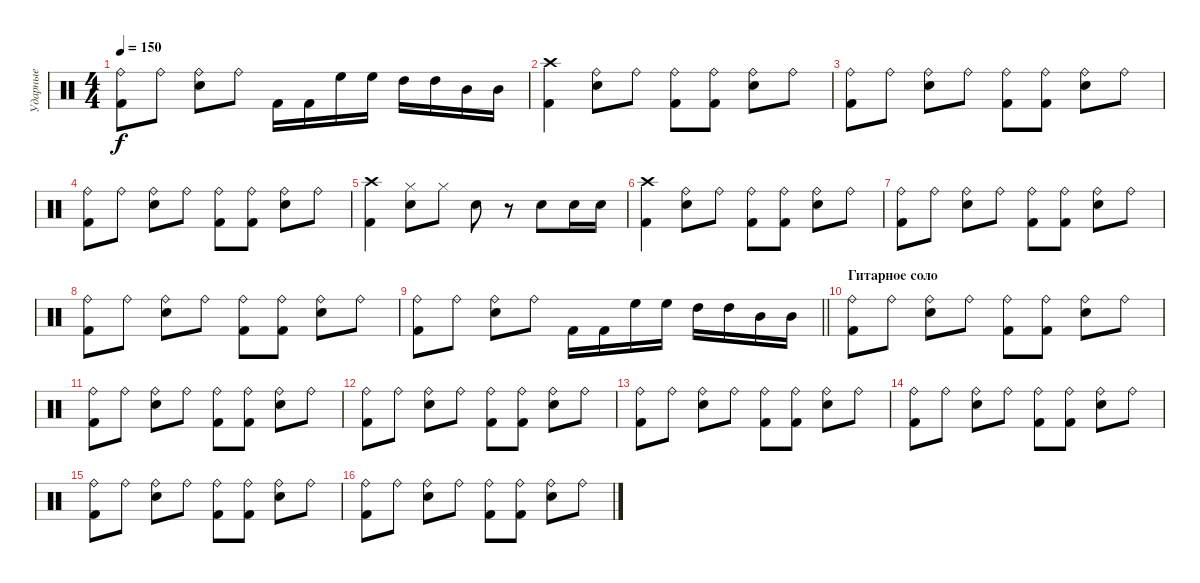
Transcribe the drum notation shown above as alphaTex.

\track ("Ударные" "Ударные") {instrument percussion}
\staff {score}
\articulation defaults
\ts (4 4)
\tempo 150
\clef neutral
\ks c
("Ride (bell)" "Kick (hit) 2").8{dy f} "Ride (bell)".8 ("Ride (bell)" "Electric Snare (hit)").8 "Ride (bell)".8 "Kick (hit) 2".16 "Kick (hit) 2".16 "High Floor Tom (hit)".16 "High Floor Tom (hit)".16 "High Tom (hit)".16 "High Tom (hit)".16 "Mid Tom (hit)".16 "Mid Tom (hit)".16 |
("Crash high (hit)" "Kick (hit) 2").4 ("Ride (bell)" "Electric Snare (hit)").8 "Ride (bell)".8 ("Ride (bell)" "Kick (hit) 2").8 ("Ride (bell)" "Kick (hit) 2").8 ("Ride (bell)" "Electric Snare (hit)").8 "Ride (bell)".8 |
("Ride (bell)" "Kick (hit) 2").8 "Ride (bell)".8 ("Ride (bell)" "Electric Snare (hit)").8 "Ride (bell)".8 ("Ride (bell)" "Kick (hit) 2").8 ("Ride (bell)" "Kick (hit) 2").8 ("Ride (bell)" "Electric Snare (hit)").8 "Ride (bell)".8 |
("Ride (bell)" "Kick (hit) 2").8 "Ride (bell)".8 ("Ride (bell)" "Electric Snare (hit)").8 "Ride (bell)".8 ("Ride (bell)" "Kick (hit) 2").8 ("Ride (bell)" "Kick (hit) 2").8 ("Ride (bell)" "Electric Snare (hit)").8 "Ride (bell)".8 |
("Crash high (hit)" "Kick (hit) 2").4 ("Hi-Hat (closed)" "Electric Snare (hit)").8 "Hi-Hat (closed)".8 "Electric Snare (hit)".8 r.8 "Electric Snare (hit)".8 "Electric Snare (hit)".16 "Electric Snare (hit)".16 |
("Crash high (hit)" "Kick (hit) 2").4 ("Ride (bell)" "Electric Snare (hit)").8 "Ride (bell)".8 ("Ride (bell)" "Kick (hit) 2").8 ("Ride (bell)" "Kick (hit) 2").8 ("Ride (bell)" "Electric Snare (hit)").8 "Ride (bell)".8 |
("Ride (bell)" "Kick (hit) 2").8 "Ride (bell)".8 ("Ride (bell)" "Electric Snare (hit)").8 "Ride (bell)".8 ("Ride (bell)" "Kick (hit) 2").8 ("Ride (bell)" "Kick (hit) 2").8 ("Ride (bell)" "Electric Snare (hit)").8 "Ride (bell)".8 |
("Ride (bell)" "Kick (hit) 2").8 "Ride (bell)".8 ("Ride (bell)" "Electric Snare (hit)").8 "Ride (bell)".8 ("Ride (bell)" "Kick (hit) 2").8 ("Ride (bell)" "Kick (hit) 2").8 ("Ride (bell)" "Electric Snare (hit)").8 "Ride (bell)".8 |
\barLineRight lightlight
("Ride (bell)" "Kick (hit) 2").8 "Ride (bell)".8 ("Ride (bell)" "Electric Snare (hit)").8 "Ride (bell)".8 "Kick (hit) 2".16 "Kick (hit) 2".16 "High Floor Tom (hit)".16 "High Floor Tom (hit)".16 "High Tom (hit)".16 "High Tom (hit)".16 "Mid Tom (hit)".16 "Mid Tom (hit)".16 |
\section ("" "Гитарное соло")
("Ride (bell)" "Kick (hit) 2").8 "Ride (bell)".8 ("Ride (bell)" "Electric Snare (hit)").8 "Ride (bell)".8 ("Ride (bell)" "Kick (hit) 2").8 ("Ride (bell)" "Kick (hit) 2").8 ("Ride (bell)" "Electric Snare (hit)").8 "Ride (bell)".8 |
("Ride (bell)" "Kick (hit) 2").8 "Ride (bell)".8 ("Ride (bell)" "Electric Snare (hit)").8 "Ride (bell)".8 ("Ride (bell)" "Kick (hit) 2").8 ("Ride (bell)" "Kick (hit) 2").8 ("Ride (bell)" "Electric Snare (hit)").8 "Ride (bell)".8 |
("Ride (bell)" "Kick (hit) 2").8 "Ride (bell)".8 ("Ride (bell)" "Electric Snare (hit)").8 "Ride (bell)".8 ("Ride (bell)" "Kick (hit) 2").8 ("Ride (bell)" "Kick (hit) 2").8 ("Ride (bell)" "Electric Snare (hit)").8 "Ride (bell)".8 |
("Ride (bell)" "Kick (hit) 2").8 "Ride (bell)".8 ("Ride (bell)" "Electric Snare (hit)").8 "Ride (bell)".8 ("Ride (bell)" "Kick (hit) 2").8 ("Ride (bell)" "Kick (hit) 2").8 ("Ride (bell)" "Electric Snare (hit)").8 "Ride (bell)".8 |
("Ride (bell)" "Kick (hit) 2").8 "Ride (bell)".8 ("Ride (bell)" "Electric Snare (hit)").8 "Ride (bell)".8 ("Ride (bell)" "Kick (hit) 2").8 ("Ride (bell)" "Kick (hit) 2").8 ("Ride (bell)" "Electric Snare (hit)").8 "Ride (bell)".8 |
("Ride (bell)" "Kick (hit) 2").8 "Ride (bell)".8 ("Ride (bell)" "Electric Snare (hit)").8 "Ride (bell)".8 ("Ride (bell)" "Kick (hit) 2").8 ("Ride (bell)" "Kick (hit) 2").8 ("Ride (bell)" "Electric Snare (hit)").8 "Ride (bell)".8 |
("Ride (bell)" "Kick (hit) 2").8 "Ride (bell)".8 ("Ride (bell)" "Electric Snare (hit)").8 "Ride (bell)".8 ("Ride (bell)" "Kick (hit) 2").8 ("Ride (bell)" "Kick (hit) 2").8 ("Ride (bell)" "Electric Snare (hit)").8 "Ride (bell)".8
